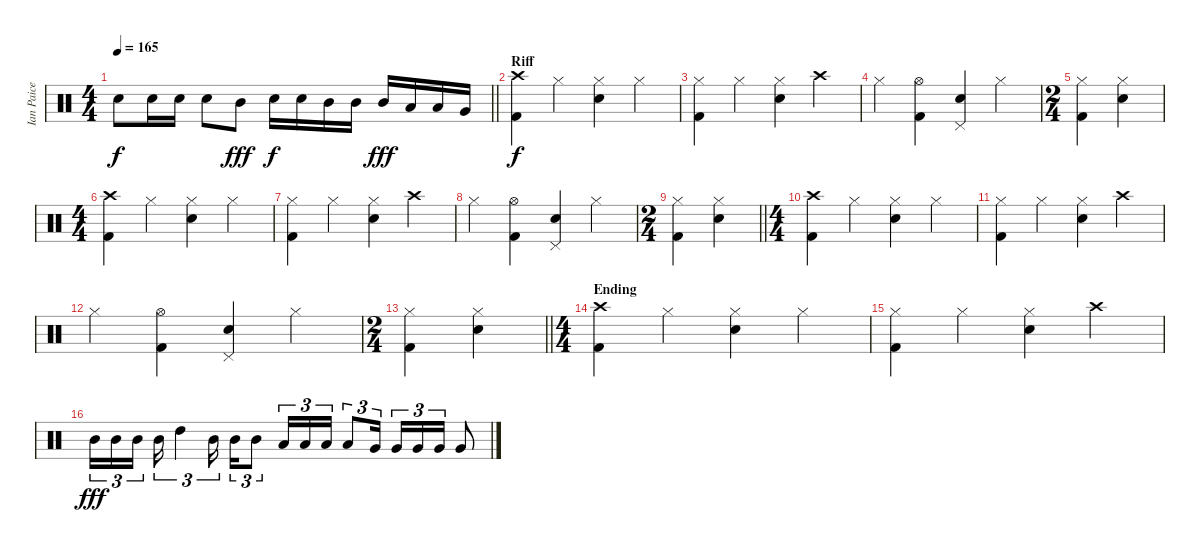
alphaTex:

\track ("Ian Paice" "Ian Paice") {instrument percussion}
\staff {score}
\articulation defaults
\ts (4 4)
\tempo 165
\clef neutral
\barLineRight lightlight
\ks c "Snare (hit) 2".8{dy f} "Snare (hit) 2".16 "Snare (hit) 2".16 "Snare (hit) 2".8 "Mid Tom (hit)".8{dy fff} "Snare (hit) 2".16{dy f} "Snare (hit) 2".16 "Mid Tom (hit)".16 "Mid Tom (hit)".16 "Mid Tom (hit)".16{dy fff} "Low Tom (hit)".16 "Low Tom (hit)".16 "Very Low Tom (hit)".16
|
\section ("" "Riff")
("Crash high (hit)" "Kick (hit) 2").4{dy f} "Hi-Hat (closed)".4 ("Hi-Hat (closed)" "Snare (hit) 2").4 "Hi-Hat (closed)".4 |
("Hi-Hat (closed)" "Kick (hit) 2").4 "Hi-Hat (closed)".4 ("Hi-Hat (closed)" "Snare (hit) 2").4 "Crash high (hit)".4 |
"Hi-Hat (closed)".4 ("Hi-Hat (open)" "Kick (hit) 2").4 ("Pedal Hi-Hat (hit)" "Snare (hit) 2").4 "Hi-Hat (closed)".4 |
\ts (2 4)
("Hi-Hat (closed)" "Kick (hit) 2").4 ("Hi-Hat (closed)" "Snare (hit) 2").4 |
\ts (4 4)
("Crash high (hit)" "Kick (hit) 2").4 "Hi-Hat (closed)".4 ("Hi-Hat (closed)" "Snare (hit) 2").4 "Hi-Hat (closed)".4 |
("Hi-Hat (closed)" "Kick (hit) 2").4 "Hi-Hat (closed)".4 ("Hi-Hat (closed)" "Snare (hit) 2").4 "Crash high (hit)".4 |
"Hi-Hat (closed)".4 ("Hi-Hat (open)" "Kick (hit) 2").4 ("Pedal Hi-Hat (hit)" "Snare (hit) 2").4 "Hi-Hat (closed)".4 |
\ts (2 4)
\barLineRight lightlight
("Hi-Hat (closed)" "Kick (hit) 2").4 ("Hi-Hat (closed)" "Snare (hit) 2").4 |
\ts (4 4)
("Crash high (hit)" "Kick (hit) 2").4 "Hi-Hat (closed)".4 ("Hi-Hat (closed)" "Snare (hit) 2").4 "Hi-Hat (closed)".4 |
("Hi-Hat (closed)" "Kick (hit) 2").4 "Hi-Hat (closed)".4 ("Hi-Hat (closed)" "Snare (hit) 2").4 "Crash high (hit)".4 |
"Hi-Hat (closed)".4 ("Hi-Hat (open)" "Kick (hit) 2").4 ("Pedal Hi-Hat (hit)" "Snare (hit) 2").4 "Hi-Hat (closed)".4 |
\ts (2 4)
\barLineRight lightlight
("Hi-Hat (closed)" "Kick (hit) 2").4 ("Hi-Hat (closed)" "Snare (hit) 2").4 |
\ts (4 4)
\section ("" "Ending")
("Crash high (hit)" "Kick (hit) 2").4 "Hi-Hat (closed)".4 ("Hi-Hat (closed)" "Snare (hit) 2").4 "Hi-Hat (closed)".4 |
("Hi-Hat (closed)" "Kick (hit) 2").4 "Hi-Hat (closed)".4 ("Hi-Hat (closed)" "Snare (hit) 2").4 "Crash high (hit)".4 |
"Mid Tom (hit)".16{tu (3 2) dy fff} "Mid Tom (hit)".16{tu (3 2)} "Mid Tom (hit)".16{tu (3 2) beam splitsecondary} "Mid Tom (hit)".16{tu (3 2)} "High Tom (hit)".4{tu (3 2)} "Mid Tom (hit)".16{tu (3 2) beam splitsecondary} "Mid Tom (hit)".16{tu (3 2)} "Mid Tom (hit)".8{tu (3 2)} "Low Tom (hit)".16{tu (3 2)} "Low Tom (hit)".16{tu (3 2)} "Low Tom (hit)".16{tu (3 2)} "Low Tom (hit)".8{tu (3 2)} "Very Low Tom (hit)".16{tu (3 2)} "Very Low Tom (hit)".16{tu (3 2)} "Very Low Tom (hit)".16{tu (3 2)} "Very Low Tom (hit)".16{tu (3 2)} "Very Low Tom (hit)".8
